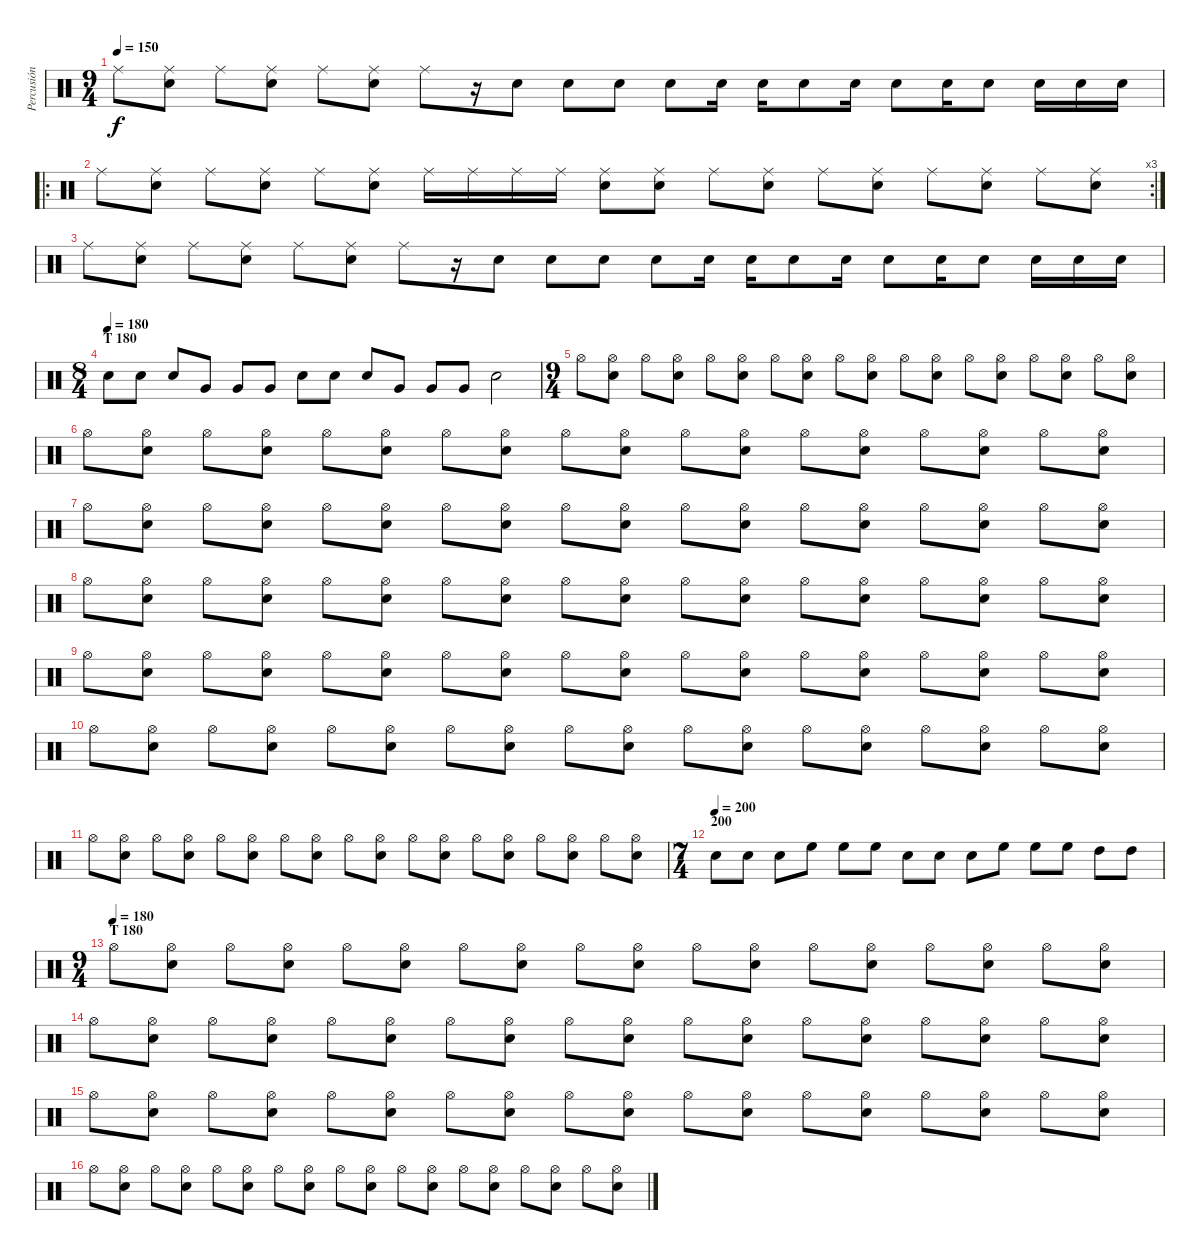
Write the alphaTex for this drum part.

\track ("Percusión - Compa" "Percusión ") {instrument percussion}
\staff {score}
\articulation defaults
\ts (9 4)
\tempo 150
\clef neutral
\ks c "Ride (middle)".8{dy f}
("Ride (middle)" "Electric Snare (hit)").8 "Ride (middle)".8 ("Ride (middle)" "Electric Snare (hit)").8 "Ride (middle)".8 ("Ride (middle)" "Electric Snare (hit)").8 "Ride (middle)".8 r.16 "Electric Snare (hit)".8 "Electric Snare (hit)".8 "Electric Snare (hit)".8 "Electric Snare (hit)".8 "Electric Snare (hit)".16 "Electric Snare (hit)".16 "Electric Snare (hit)".8 "Electric Snare (hit)".16 "Electric Snare (hit)".8 "Electric Snare (hit)".16 "Electric Snare (hit)".8 "Electric Snare (hit)".16 "Electric Snare (hit)".16 "Electric Snare (hit)".16 |
\ro
\rc 3 "Ride (middle)".8
("Ride (middle)" "Electric Snare (hit)").8 "Ride (middle)".8 ("Ride (middle)" "Electric Snare (hit)").8 "Ride (middle)".8 ("Ride (middle)" "Electric Snare (hit)").8 "Ride (middle)".16 "Ride (middle)".16 "Ride (middle)".16 "Ride (middle)".16 ("Ride (middle)" "Electric Snare (hit)").8 ("Ride (middle)" "Electric Snare (hit)").8 "Ride (middle)".8 ("Ride (middle)" "Electric Snare (hit)").8 "Ride (middle)".8 ("Ride (middle)" "Electric Snare (hit)").8 "Ride (middle)".8 ("Ride (middle)" "Electric Snare (hit)").8 "Ride (middle)".8 ("Ride (middle)" "Electric Snare (hit)").8 |
"Ride (middle)".8 ("Ride (middle)" "Electric Snare (hit)").8 "Ride (middle)".8 ("Ride (middle)" "Electric Snare (hit)").8 "Ride (middle)".8 ("Ride (middle)" "Electric Snare (hit)").8 "Ride (middle)".8 r.16 "Electric Snare (hit)".8 "Electric Snare (hit)".8 "Electric Snare (hit)".8 "Electric Snare (hit)".8 "Electric Snare (hit)".16 "Electric Snare (hit)".16 "Electric Snare (hit)".8 "Electric Snare (hit)".16 "Electric Snare (hit)".8 "Electric Snare (hit)".16 "Electric Snare (hit)".8 "Electric Snare (hit)".16 "Electric Snare (hit)".16 "Electric Snare (hit)".16 |
\ts (8 4)
\section ("" "T 180")
\tempo (180)
"Electric Snare (hit)".8 "Electric Snare (hit)".8 "Electric Snare (hit)".8 "Very Low Tom (hit)".8 "Very Low Tom (hit)".8 "Very Low Tom (hit)".8 "Electric Snare (hit)".8 "Electric Snare (hit)".8 "Electric Snare (hit)".8 "Very Low Tom (hit)".8 "Very Low Tom (hit)".8 "Very Low Tom (hit)".8 "Electric Snare (hit)".2 |
\ts (9 4)
"Hi-Hat (open)".8 ("Hi-Hat (open)" "Electric Snare (hit)").8 "Hi-Hat (open)".8 ("Hi-Hat (open)" "Electric Snare (hit)").8 "Hi-Hat (open)".8 ("Hi-Hat (open)" "Electric Snare (hit)").8 "Hi-Hat (open)".8 ("Hi-Hat (open)" "Electric Snare (hit)").8 "Hi-Hat (open)".8 ("Hi-Hat (open)" "Electric Snare (hit)").8 "Hi-Hat (open)".8 ("Hi-Hat (open)" "Electric Snare (hit)").8 "Hi-Hat (open)".8 ("Hi-Hat (open)" "Electric Snare (hit)").8 "Hi-Hat (open)".8 ("Hi-Hat (open)" "Electric Snare (hit)").8 "Hi-Hat (open)".8 ("Hi-Hat (open)" "Electric Snare (hit)").8 |
"Hi-Hat (open)".8 ("Hi-Hat (open)" "Electric Snare (hit)").8 "Hi-Hat (open)".8 ("Hi-Hat (open)" "Electric Snare (hit)").8 "Hi-Hat (open)".8 ("Hi-Hat (open)" "Electric Snare (hit)").8 "Hi-Hat (open)".8 ("Hi-Hat (open)" "Electric Snare (hit)").8 "Hi-Hat (open)".8 ("Hi-Hat (open)" "Electric Snare (hit)").8 "Hi-Hat (open)".8 ("Hi-Hat (open)" "Electric Snare (hit)").8 "Hi-Hat (open)".8 ("Hi-Hat (open)" "Electric Snare (hit)").8 "Hi-Hat (open)".8 ("Hi-Hat (open)" "Electric Snare (hit)").8 "Hi-Hat (open)".8 ("Hi-Hat (open)" "Electric Snare (hit)").8 |
"Hi-Hat (open)".8 ("Hi-Hat (open)" "Electric Snare (hit)").8 "Hi-Hat (open)".8 ("Hi-Hat (open)" "Electric Snare (hit)").8 "Hi-Hat (open)".8 ("Hi-Hat (open)" "Electric Snare (hit)").8 "Hi-Hat (open)".8 ("Hi-Hat (open)" "Electric Snare (hit)").8 "Hi-Hat (open)".8 ("Hi-Hat (open)" "Electric Snare (hit)").8 "Hi-Hat (open)".8 ("Hi-Hat (open)" "Electric Snare (hit)").8 "Hi-Hat (open)".8 ("Hi-Hat (open)" "Electric Snare (hit)").8 "Hi-Hat (open)".8 ("Hi-Hat (open)" "Electric Snare (hit)").8 "Hi-Hat (open)".8 ("Hi-Hat (open)" "Electric Snare (hit)").8 |
"Hi-Hat (open)".8 ("Hi-Hat (open)" "Electric Snare (hit)").8 "Hi-Hat (open)".8 ("Hi-Hat (open)" "Electric Snare (hit)").8 "Hi-Hat (open)".8 ("Hi-Hat (open)" "Electric Snare (hit)").8 "Hi-Hat (open)".8 ("Hi-Hat (open)" "Electric Snare (hit)").8 "Hi-Hat (open)".8 ("Hi-Hat (open)" "Electric Snare (hit)").8 "Hi-Hat (open)".8 ("Hi-Hat (open)" "Electric Snare (hit)").8 "Hi-Hat (open)".8 ("Hi-Hat (open)" "Electric Snare (hit)").8 "Hi-Hat (open)".8 ("Hi-Hat (open)" "Electric Snare (hit)").8 "Hi-Hat (open)".8 ("Hi-Hat (open)" "Electric Snare (hit)").8 |
"Hi-Hat (open)".8 ("Hi-Hat (open)" "Electric Snare (hit)").8 "Hi-Hat (open)".8 ("Hi-Hat (open)" "Electric Snare (hit)").8 "Hi-Hat (open)".8 ("Hi-Hat (open)" "Electric Snare (hit)").8 "Hi-Hat (open)".8 ("Hi-Hat (open)" "Electric Snare (hit)").8 "Hi-Hat (open)".8 ("Hi-Hat (open)" "Electric Snare (hit)").8 "Hi-Hat (open)".8 ("Hi-Hat (open)" "Electric Snare (hit)").8 "Hi-Hat (open)".8 ("Hi-Hat (open)" "Electric Snare (hit)").8 "Hi-Hat (open)".8 ("Hi-Hat (open)" "Electric Snare (hit)").8 "Hi-Hat (open)".8 ("Hi-Hat (open)" "Electric Snare (hit)").8 |
"Hi-Hat (open)".8 ("Hi-Hat (open)" "Electric Snare (hit)").8 "Hi-Hat (open)".8 ("Hi-Hat (open)" "Electric Snare (hit)").8 "Hi-Hat (open)".8 ("Hi-Hat (open)" "Electric Snare (hit)").8 "Hi-Hat (open)".8 ("Hi-Hat (open)" "Electric Snare (hit)").8 "Hi-Hat (open)".8 ("Hi-Hat (open)" "Electric Snare (hit)").8 "Hi-Hat (open)".8 ("Hi-Hat (open)" "Electric Snare (hit)").8 "Hi-Hat (open)".8 ("Hi-Hat (open)" "Electric Snare (hit)").8 "Hi-Hat (open)".8 ("Hi-Hat (open)" "Electric Snare (hit)").8 "Hi-Hat (open)".8 ("Hi-Hat (open)" "Electric Snare (hit)").8 |
"Hi-Hat (open)".8 ("Hi-Hat (open)" "Electric Snare (hit)").8 "Hi-Hat (open)".8 ("Hi-Hat (open)" "Electric Snare (hit)").8 "Hi-Hat (open)".8 ("Hi-Hat (open)" "Electric Snare (hit)").8 "Hi-Hat (open)".8 ("Hi-Hat (open)" "Electric Snare (hit)").8 "Hi-Hat (open)".8 ("Hi-Hat (open)" "Electric Snare (hit)").8 "Hi-Hat (open)".8 ("Hi-Hat (open)" "Electric Snare (hit)").8 "Hi-Hat (open)".8 ("Hi-Hat (open)" "Electric Snare (hit)").8 "Hi-Hat (open)".8 ("Hi-Hat (open)" "Electric Snare (hit)").8 "Hi-Hat (open)".8 ("Hi-Hat (open)" "Electric Snare (hit)").8 |
\ts (7 4)
\section ("" "200")
\tempo (200)
"Electric Snare (hit)".8 "Electric Snare (hit)".8 "Electric Snare (hit)".8 "High Floor Tom (hit)".8 "High Floor Tom (hit)".8 "High Floor Tom (hit)".8 "Electric Snare (hit)".8 "Electric Snare (hit)".8 "Electric Snare (hit)".8 "High Floor Tom (hit)".8 "High Floor Tom (hit)".8 "High Floor Tom (hit)".8 "High Tom (hit)".8 "High Tom (hit)".8 |
\ts (9 4)
\section ("" "T 180")
\tempo (180)
"Hi-Hat (open)".8 ("Hi-Hat (open)" "Electric Snare (hit)").8 "Hi-Hat (open)".8 ("Hi-Hat (open)" "Electric Snare (hit)").8 "Hi-Hat (open)".8 ("Hi-Hat (open)" "Electric Snare (hit)").8 "Hi-Hat (open)".8 ("Hi-Hat (open)" "Electric Snare (hit)").8 "Hi-Hat (open)".8 ("Hi-Hat (open)" "Electric Snare (hit)").8 "Hi-Hat (open)".8 ("Hi-Hat (open)" "Electric Snare (hit)").8 "Hi-Hat (open)".8 ("Hi-Hat (open)" "Electric Snare (hit)").8 "Hi-Hat (open)".8 ("Hi-Hat (open)" "Electric Snare (hit)").8 "Hi-Hat (open)".8 ("Hi-Hat (open)" "Electric Snare (hit)").8 |
"Hi-Hat (open)".8 ("Hi-Hat (open)" "Electric Snare (hit)").8 "Hi-Hat (open)".8 ("Hi-Hat (open)" "Electric Snare (hit)").8 "Hi-Hat (open)".8 ("Hi-Hat (open)" "Electric Snare (hit)").8 "Hi-Hat (open)".8 ("Hi-Hat (open)" "Electric Snare (hit)").8 "Hi-Hat (open)".8 ("Hi-Hat (open)" "Electric Snare (hit)").8 "Hi-Hat (open)".8 ("Hi-Hat (open)" "Electric Snare (hit)").8 "Hi-Hat (open)".8 ("Hi-Hat (open)" "Electric Snare (hit)").8 "Hi-Hat (open)".8 ("Hi-Hat (open)" "Electric Snare (hit)").8 "Hi-Hat (open)".8 ("Hi-Hat (open)" "Electric Snare (hit)").8 |
"Hi-Hat (open)".8 ("Hi-Hat (open)" "Electric Snare (hit)").8 "Hi-Hat (open)".8 ("Hi-Hat (open)" "Electric Snare (hit)").8 "Hi-Hat (open)".8 ("Hi-Hat (open)" "Electric Snare (hit)").8 "Hi-Hat (open)".8 ("Hi-Hat (open)" "Electric Snare (hit)").8 "Hi-Hat (open)".8 ("Hi-Hat (open)" "Electric Snare (hit)").8 "Hi-Hat (open)".8 ("Hi-Hat (open)" "Electric Snare (hit)").8 "Hi-Hat (open)".8 ("Hi-Hat (open)" "Electric Snare (hit)").8 "Hi-Hat (open)".8 ("Hi-Hat (open)" "Electric Snare (hit)").8 "Hi-Hat (open)".8 ("Hi-Hat (open)" "Electric Snare (hit)").8 |
"Hi-Hat (open)".8 ("Hi-Hat (open)" "Electric Snare (hit)").8 "Hi-Hat (open)".8 ("Hi-Hat (open)" "Electric Snare (hit)").8 "Hi-Hat (open)".8 ("Hi-Hat (open)" "Electric Snare (hit)").8 "Hi-Hat (open)".8 ("Hi-Hat (open)" "Electric Snare (hit)").8 "Hi-Hat (open)".8 ("Hi-Hat (open)" "Electric Snare (hit)").8 "Hi-Hat (open)".8 ("Hi-Hat (open)" "Electric Snare (hit)").8 "Hi-Hat (open)".8 ("Hi-Hat (open)" "Electric Snare (hit)").8 "Hi-Hat (open)".8 ("Hi-Hat (open)" "Electric Snare (hit)").8 "Hi-Hat (open)".8 ("Hi-Hat (open)" "Electric Snare (hit)").8
